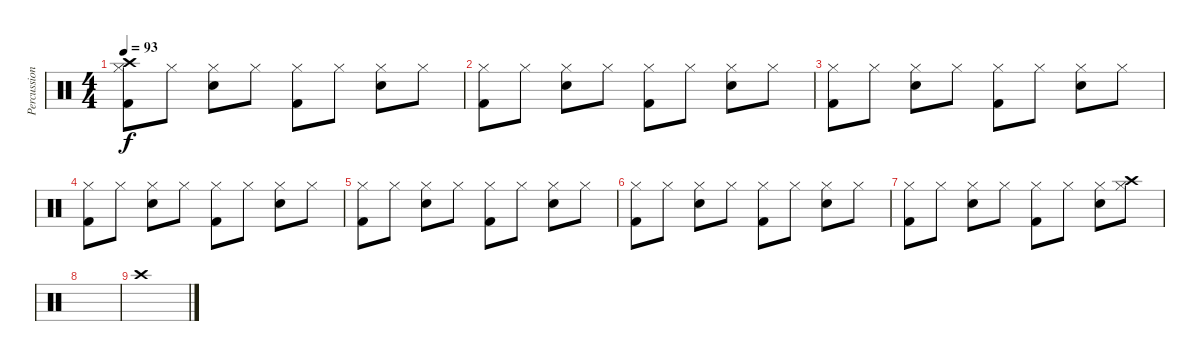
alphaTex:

\track ("Percussion" "Percussion") {instrument percussion}
\staff {score}
\articulation defaults
\ts (4 4)
\tempo 93
\clef neutral
\ks c
("Crash high (hit)" "Hi-Hat (closed)" "Kick (hit) 2").8{dy f} "Hi-Hat (closed)".8 ("Hi-Hat (closed)" "Electric Snare (hit)").8 "Hi-Hat (closed)".8 ("Hi-Hat (closed)" "Kick (hit) 2").8 "Hi-Hat (closed)".8 ("Hi-Hat (closed)" "Electric Snare (hit)").8 "Hi-Hat (closed)".8 |
("Hi-Hat (closed)" "Kick (hit) 2").8 "Hi-Hat (closed)".8 ("Hi-Hat (closed)" "Electric Snare (hit)").8 "Hi-Hat (closed)".8 ("Hi-Hat (closed)" "Kick (hit) 2").8 "Hi-Hat (closed)".8 ("Hi-Hat (closed)" "Electric Snare (hit)").8 "Hi-Hat (closed)".8 |
("Hi-Hat (closed)" "Kick (hit) 2").8 "Hi-Hat (closed)".8 ("Hi-Hat (closed)" "Electric Snare (hit)").8 "Hi-Hat (closed)".8 ("Hi-Hat (closed)" "Kick (hit) 2").8 "Hi-Hat (closed)".8 ("Hi-Hat (closed)" "Electric Snare (hit)").8 "Hi-Hat (closed)".8 |
("Hi-Hat (closed)" "Kick (hit) 2").8 "Hi-Hat (closed)".8 ("Hi-Hat (closed)" "Electric Snare (hit)").8 "Hi-Hat (closed)".8 ("Hi-Hat (closed)" "Kick (hit) 2").8 "Hi-Hat (closed)".8 ("Hi-Hat (closed)" "Electric Snare (hit)").8 "Hi-Hat (closed)".8 |
("Hi-Hat (closed)" "Kick (hit) 2").8 "Hi-Hat (closed)".8 ("Hi-Hat (closed)" "Electric Snare (hit)").8 "Hi-Hat (closed)".8 ("Hi-Hat (closed)" "Kick (hit) 2").8 "Hi-Hat (closed)".8 ("Hi-Hat (closed)" "Electric Snare (hit)").8 "Hi-Hat (closed)".8 |
("Hi-Hat (closed)" "Kick (hit) 2").8 "Hi-Hat (closed)".8 ("Hi-Hat (closed)" "Electric Snare (hit)").8 "Hi-Hat (closed)".8 ("Hi-Hat (closed)" "Kick (hit) 2").8 "Hi-Hat (closed)".8 ("Hi-Hat (closed)" "Electric Snare (hit)").8 "Hi-Hat (closed)".8 |
("Hi-Hat (closed)" "Kick (hit) 2").8 "Hi-Hat (closed)".8 ("Hi-Hat (closed)" "Electric Snare (hit)").8 "Hi-Hat (closed)".8 ("Hi-Hat (closed)" "Kick (hit) 2").8 "Hi-Hat (closed)".8 ("Hi-Hat (closed)" "Electric Snare (hit)").8 ("Crash high (hit)" "Hi-Hat (closed)").8 |
|
"Crash high (hit)".1
